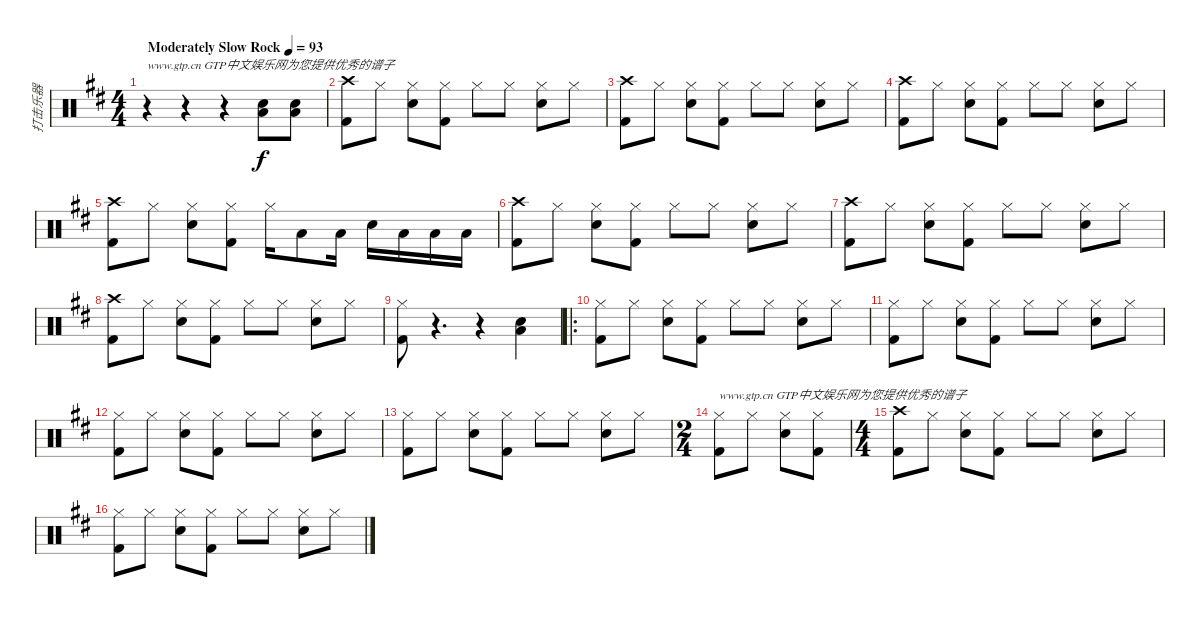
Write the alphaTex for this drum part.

\track ("打击乐器" "打击乐器") {instrument percussion}
\staff {score}
\articulation defaults
\ts (4 4)
\tempo (93 "Moderately Slow Rock")
\clef neutral
\ks d
r.4{txt "www.gtp.cn GTP中文娱乐网为您提供优秀的谱子" dy f} r.4 r.4 ("Low Tom (hit)" "Snare (hit) 2").8 ("Low Tom (hit)" "Snare (hit) 2").8 |
("Crash high (hit)" "Kick (hit) 2").8 "Hi-Hat (closed)".8 ("Hi-Hat (closed)" "Snare (hit) 2").8 ("Hi-Hat (closed)" "Kick (hit) 2").8 "Hi-Hat (closed)".8 "Hi-Hat (closed)".8 ("Hi-Hat (closed)" "Snare (hit) 2").8 "Hi-Hat (closed)".8 |
("Crash high (hit)" "Kick (hit) 2").8 "Hi-Hat (closed)".8 ("Hi-Hat (closed)" "Snare (hit) 2").8 ("Hi-Hat (closed)" "Kick (hit) 2").8 "Hi-Hat (closed)".8 "Hi-Hat (closed)".8 ("Hi-Hat (closed)" "Snare (hit) 2").8 "Hi-Hat (closed)".8 |
("Crash high (hit)" "Kick (hit) 2").8 "Hi-Hat (closed)".8 ("Hi-Hat (closed)" "Snare (hit) 2").8 ("Hi-Hat (closed)" "Kick (hit) 2").8 "Hi-Hat (closed)".8 "Hi-Hat (closed)".8 ("Hi-Hat (closed)" "Snare (hit) 2").8 "Hi-Hat (closed)".8 |
("Crash high (hit)" "Kick (hit) 2").8 "Hi-Hat (closed)".8 ("Hi-Hat (closed)" "Snare (hit) 2").8 ("Hi-Hat (closed)" "Kick (hit) 2").8 "Hi-Hat (closed)".16 "Low Tom (hit)".8 "Low Tom (hit)".16 "Snare (hit) 2".16 "Low Tom (hit)".16 "Low Tom (hit)".16 "Low Tom (hit)".16 |
("Crash high (hit)" "Kick (hit) 2").8 "Hi-Hat (closed)".8 ("Hi-Hat (closed)" "Snare (hit) 2").8 ("Hi-Hat (closed)" "Kick (hit) 2").8 "Hi-Hat (closed)".8 "Hi-Hat (closed)".8 ("Hi-Hat (closed)" "Snare (hit) 2").8 "Hi-Hat (closed)".8 |
("Crash high (hit)" "Kick (hit) 2").8 "Hi-Hat (closed)".8 ("Hi-Hat (closed)" "Snare (hit) 2").8 ("Hi-Hat (closed)" "Kick (hit) 2").8 "Hi-Hat (closed)".8 "Hi-Hat (closed)".8 ("Hi-Hat (closed)" "Snare (hit) 2").8 "Hi-Hat (closed)".8 |
("Crash high (hit)" "Kick (hit) 2").8 "Hi-Hat (closed)".8 ("Hi-Hat (closed)" "Snare (hit) 2").8 ("Hi-Hat (closed)" "Kick (hit) 2").8 "Hi-Hat (closed)".8 "Hi-Hat (closed)".8 ("Hi-Hat (closed)" "Snare (hit) 2").8 "Hi-Hat (closed)".8 |
("Hi-Hat (closed)" "Kick (hit) 2").8 r.4{d} r.4 ("Low Tom (hit)" "Snare (hit) 2").4 |
\ro
("Hi-Hat (closed)" "Kick (hit) 2").8 "Hi-Hat (closed)".8 ("Hi-Hat (closed)" "Snare (hit) 2").8 ("Hi-Hat (closed)" "Kick (hit) 2").8 "Hi-Hat (closed)".8 "Hi-Hat (closed)".8 ("Hi-Hat (closed)" "Snare (hit) 2").8 "Hi-Hat (closed)".8 |
("Hi-Hat (closed)" "Kick (hit) 2").8 "Hi-Hat (closed)".8 ("Hi-Hat (closed)" "Snare (hit) 2").8 ("Hi-Hat (closed)" "Kick (hit) 2").8 "Hi-Hat (closed)".8 "Hi-Hat (closed)".8 ("Hi-Hat (closed)" "Snare (hit) 2").8 "Hi-Hat (closed)".8 |
("Hi-Hat (closed)" "Kick (hit) 2").8 "Hi-Hat (closed)".8 ("Hi-Hat (closed)" "Snare (hit) 2").8 ("Hi-Hat (closed)" "Kick (hit) 2").8 "Hi-Hat (closed)".8 "Hi-Hat (closed)".8 ("Hi-Hat (closed)" "Snare (hit) 2").8 "Hi-Hat (closed)".8 |
("Hi-Hat (closed)" "Kick (hit) 2").8 "Hi-Hat (closed)".8 ("Hi-Hat (closed)" "Snare (hit) 2").8 ("Hi-Hat (closed)" "Kick (hit) 2").8 "Hi-Hat (closed)".8 "Hi-Hat (closed)".8 ("Hi-Hat (closed)" "Snare (hit) 2").8 "Hi-Hat (closed)".8 |
\ts (2 4)
("Hi-Hat (closed)" "Kick (hit) 2").8{txt "www.gtp.cn GTP中文娱乐网为您提供优秀的谱子"} "Hi-Hat (closed)".8 ("Hi-Hat (closed)" "Snare (hit) 2").8 ("Hi-Hat (closed)" "Kick (hit) 2").8 |
\ts (4 4)
("Crash high (hit)" "Kick (hit) 2").8 "Hi-Hat (closed)".8 ("Hi-Hat (closed)" "Snare (hit) 2").8 ("Hi-Hat (closed)" "Kick (hit) 2").8 "Hi-Hat (closed)".8 "Hi-Hat (closed)".8 ("Hi-Hat (closed)" "Snare (hit) 2").8 "Hi-Hat (closed)".8 |
("Hi-Hat (closed)" "Kick (hit) 2").8 "Hi-Hat (closed)".8 ("Hi-Hat (closed)" "Snare (hit) 2").8 ("Hi-Hat (closed)" "Kick (hit) 2").8 "Hi-Hat (closed)".8 "Hi-Hat (closed)".8 ("Hi-Hat (closed)" "Snare (hit) 2").8 "Hi-Hat (closed)".8
